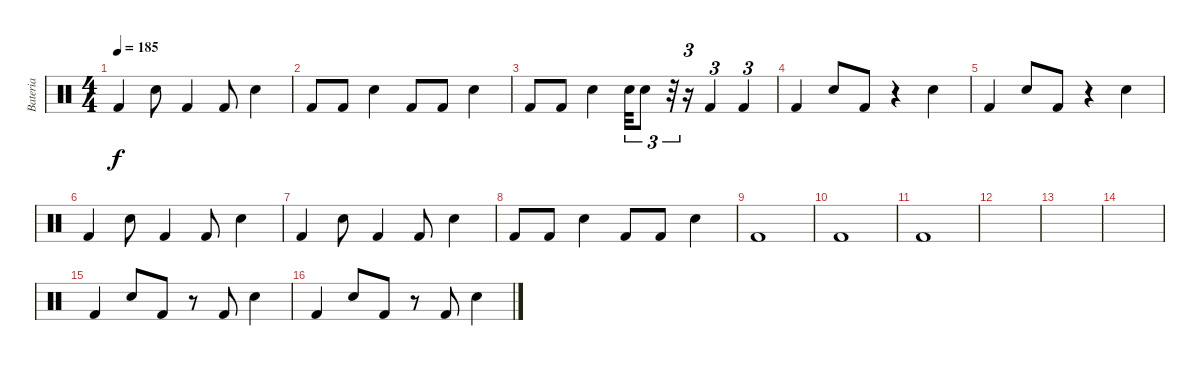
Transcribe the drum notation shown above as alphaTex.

\track ("Bateria" "Bateria") {instrument percussion}
\staff {score}
\articulation defaults
\ts (4 4)
\tempo 185
\clef neutral
\ks c "Kick (hit) 2".4{dy f} "Snare (hit) 2".8 "Kick (hit) 2".4 "Kick (hit) 2".8 "Snare (hit) 2".4
|
"Kick (hit) 2".8 "Kick (hit) 2".8 "Snare (hit) 2".4 "Kick (hit) 2".8 "Kick (hit) 2".8 "Snare (hit) 2".4 |
"Kick (hit) 2".8 "Kick (hit) 2".8 "Snare (hit) 2".4 "Snare (hit) 2".32{tu (3 2)} "Snare (hit) 2".8{tu (3 2)} r.32{tu (3 2)} r.16{tu (3 2)} "Kick (hit) 2".4{tu (3 2)} "Kick (hit) 2".4{tu (3 2)} |
"Kick (hit) 2".4 "Snare (hit) 2".8 "Kick (hit) 2".8 r.4 "Snare (hit) 2".4 |
"Kick (hit) 2".4 "Snare (hit) 2".8 "Kick (hit) 2".8 r.4 "Snare (hit) 2".4 |
"Kick (hit) 2".4 "Snare (hit) 2".8 "Kick (hit) 2".4 "Kick (hit) 2".8 "Snare (hit) 2".4 |
"Kick (hit) 2".4 "Snare (hit) 2".8 "Kick (hit) 2".4 "Kick (hit) 2".8 "Snare (hit) 2".4 |
"Kick (hit) 2".8 "Kick (hit) 2".8 "Snare (hit) 2".4 "Kick (hit) 2".8 "Kick (hit) 2".8 "Snare (hit) 2".4 |
"Kick (hit) 2".1 |
"Kick (hit) 2".1 |
"Kick (hit) 2".1 |
|
|
|
"Kick (hit) 2".4 "Snare (hit) 2".8 "Kick (hit) 2".8 r.8 "Kick (hit) 2".8 "Snare (hit) 2".4 |
"Kick (hit) 2".4 "Snare (hit) 2".8 "Kick (hit) 2".8 r.8 "Kick (hit) 2".8 "Snare (hit) 2".4
